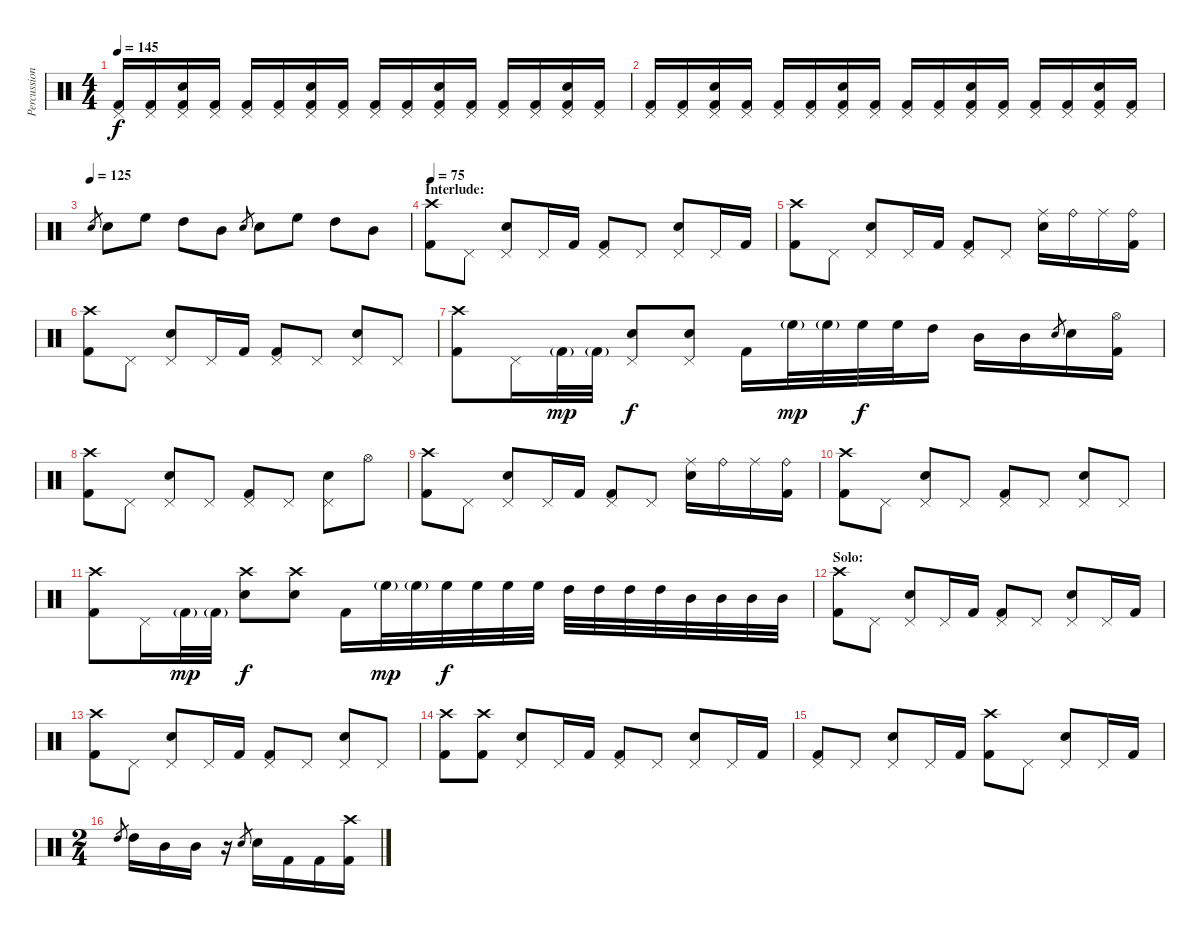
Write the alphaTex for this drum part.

\track ("Percussion" "Percussion") {instrument percussion}
\staff {score}
\articulation defaults
\ts (4 4)
\tempo 145
\clef neutral
\ks c
("Pedal Hi-Hat (hit)" "Kick (hit) 2").16{dy f} ("Pedal Hi-Hat (hit)" "Kick (hit) 2").16 ("Pedal Hi-Hat (hit)" "Snare (hit) 2" "Kick (hit) 2").16 ("Pedal Hi-Hat (hit)" "Kick (hit) 2").16 ("Pedal Hi-Hat (hit)" "Kick (hit) 2").16 ("Pedal Hi-Hat (hit)" "Kick (hit) 2").16 ("Pedal Hi-Hat (hit)" "Snare (hit) 2" "Kick (hit) 2").16 ("Pedal Hi-Hat (hit)" "Kick (hit) 2").16 ("Pedal Hi-Hat (hit)" "Kick (hit) 2").16 ("Pedal Hi-Hat (hit)" "Kick (hit) 2").16 ("Pedal Hi-Hat (hit)" "Snare (hit) 2" "Kick (hit) 2").16 ("Pedal Hi-Hat (hit)" "Kick (hit) 2").16 ("Pedal Hi-Hat (hit)" "Kick (hit) 2").16 ("Pedal Hi-Hat (hit)" "Kick (hit) 2").16 ("Pedal Hi-Hat (hit)" "Snare (hit) 2" "Kick (hit) 2").16 ("Pedal Hi-Hat (hit)" "Kick (hit) 2").16 |
("Pedal Hi-Hat (hit)" "Kick (hit) 2").16 ("Pedal Hi-Hat (hit)" "Kick (hit) 2").16 ("Pedal Hi-Hat (hit)" "Snare (hit) 2" "Kick (hit) 2").16 ("Pedal Hi-Hat (hit)" "Kick (hit) 2").16 ("Pedal Hi-Hat (hit)" "Kick (hit) 2").16 ("Pedal Hi-Hat (hit)" "Kick (hit) 2").16 ("Pedal Hi-Hat (hit)" "Snare (hit) 2" "Kick (hit) 2").16 ("Pedal Hi-Hat (hit)" "Kick (hit) 2").16 ("Pedal Hi-Hat (hit)" "Kick (hit) 2").16 ("Pedal Hi-Hat (hit)" "Kick (hit) 2").16 ("Pedal Hi-Hat (hit)" "Snare (hit) 2" "Kick (hit) 2").16 ("Pedal Hi-Hat (hit)" "Kick (hit) 2").16 ("Pedal Hi-Hat (hit)" "Kick (hit) 2").16 ("Pedal Hi-Hat (hit)" "Kick (hit) 2").16 ("Pedal Hi-Hat (hit)" "Snare (hit) 2" "Kick (hit) 2").16 ("Pedal Hi-Hat (hit)" "Kick (hit) 2").16 |
\tempo (125)
"Snare (hit) 2".8{gr} "Snare (hit) 2".8 "High Floor Tom (hit)".8 "High Tom (hit)".8 "Mid Tom (hit)".8 "Snare (hit) 2".8{gr} "Snare (hit) 2".8 "High Floor Tom (hit)".8 "High Tom (hit)".8 "Mid Tom (hit)".8 |
\section ("" "Interlude:")
\tempo 75
("Crash high (hit)" "Kick (hit) 2").8 "Pedal Hi-Hat (hit)".8 ("Pedal Hi-Hat (hit)" "Snare (hit) 2").8 "Pedal Hi-Hat (hit)".16 "Kick (hit) 2".16 ("Pedal Hi-Hat (hit)" "Kick (hit) 2").8 "Pedal Hi-Hat (hit)".8 ("Pedal Hi-Hat (hit)" "Snare (hit) 2").8 "Pedal Hi-Hat (hit)".16 "Kick (hit) 2".16 |
("Crash high (hit)" "Kick (hit) 2").8 "Pedal Hi-Hat (hit)".8 ("Pedal Hi-Hat (hit)" "Snare (hit) 2").8 "Pedal Hi-Hat (hit)".16 "Kick (hit) 2".16 ("Pedal Hi-Hat (hit)" "Kick (hit) 2").8 "Pedal Hi-Hat (hit)".8 ("Ride (middle)" "Snare (hit) 2").16 "Ride (bell)".16 "Ride (middle)".16 ("Ride (bell)" "Kick (hit) 2").16 |
("Crash high (hit)" "Kick (hit) 2").8 "Pedal Hi-Hat (hit)".8 ("Pedal Hi-Hat (hit)" "Snare (hit) 2").8 "Pedal Hi-Hat (hit)".16 "Kick (hit) 2".16 ("Pedal Hi-Hat (hit)" "Kick (hit) 2").8 "Pedal Hi-Hat (hit)".8 ("Pedal Hi-Hat (hit)" "Snare (hit) 2").8 "Pedal Hi-Hat (hit)".8 |
("Crash high (hit)" "Kick (hit) 2").8 "Pedal Hi-Hat (hit)".16 "Kick (hit) 2"{g}.32{dy mp} "Kick (hit) 2"{g}.32 ("Pedal Hi-Hat (hit)" "Snare (hit) 2").8{dy f} ("Pedal Hi-Hat (hit)" "Snare (hit) 2").8 "Kick (hit) 2".16 "High Floor Tom (hit)"{g}.32{dy mp} "High Floor Tom (hit)"{g}.32 "High Floor Tom (hit)".32{dy f} "High Floor Tom (hit)".32 "High Tom (hit)".16 "Mid Tom (hit)".16 "Mid Tom (hit)".16 "Snare (hit) 2".8{gr} "Snare (hit) 2".16 ("Hi-Hat (open)" "Kick (hit) 2").16 |
("Crash high (hit)" "Kick (hit) 2").8 "Pedal Hi-Hat (hit)".8 ("Pedal Hi-Hat (hit)" "Snare (hit) 2").8 "Pedal Hi-Hat (hit)".8 ("Pedal Hi-Hat (hit)" "Kick (hit) 2").8 "Pedal Hi-Hat (hit)".8 ("Pedal Hi-Hat (hit)" "Snare (hit) 2").8 "Hi-Hat (open)".8 |
("Crash high (hit)" "Kick (hit) 2").8 "Pedal Hi-Hat (hit)".8 ("Pedal Hi-Hat (hit)" "Snare (hit) 2").8 "Pedal Hi-Hat (hit)".16 "Kick (hit) 2".16 ("Pedal Hi-Hat (hit)" "Kick (hit) 2").8 "Pedal Hi-Hat (hit)".8 ("Ride (middle)" "Snare (hit) 2").16 "Ride (bell)".16 "Ride (middle)".16 ("Ride (bell)" "Kick (hit) 2").16 |
("Crash high (hit)" "Kick (hit) 2").8 "Pedal Hi-Hat (hit)".8 ("Pedal Hi-Hat (hit)" "Snare (hit) 2").8 "Pedal Hi-Hat (hit)".8 ("Pedal Hi-Hat (hit)" "Kick (hit) 2").8 "Pedal Hi-Hat (hit)".8 ("Pedal Hi-Hat (hit)" "Snare (hit) 2").8 "Pedal Hi-Hat (hit)".8 |
("Crash high (hit)" "Kick (hit) 2").8 "Pedal Hi-Hat (hit)".16 "Kick (hit) 2"{g}.32{dy mp} "Kick (hit) 2"{g}.32 ("Crash high (hit)" "Snare (hit) 2").8{dy f} ("Crash high (hit)" "Snare (hit) 2").8 "Kick (hit) 2".16 "High Floor Tom (hit)"{g}.32{dy mp} "High Floor Tom (hit)"{g}.32 "High Floor Tom (hit)".32{dy f} "High Floor Tom (hit)".32 "High Floor Tom (hit)".32 "High Floor Tom (hit)".32 "High Tom (hit)".32 "High Tom (hit)".32 "High Tom (hit)".32 "High Tom (hit)".32 "Mid Tom (hit)".32 "Mid Tom (hit)".32 "Mid Tom (hit)".32 "Mid Tom (hit)".32 |
\section ("" "Solo:")
("Crash high (hit)" "Kick (hit) 2").8 "Pedal Hi-Hat (hit)".8 ("Pedal Hi-Hat (hit)" "Snare (hit) 2").8 "Pedal Hi-Hat (hit)".16 "Kick (hit) 2".16 ("Pedal Hi-Hat (hit)" "Kick (hit) 2").8 "Pedal Hi-Hat (hit)".8 ("Pedal Hi-Hat (hit)" "Snare (hit) 2").8 "Pedal Hi-Hat (hit)".16 "Kick (hit) 2".16 |
("Crash high (hit)" "Kick (hit) 2").8 "Pedal Hi-Hat (hit)".8 ("Pedal Hi-Hat (hit)" "Snare (hit) 2").8 "Pedal Hi-Hat (hit)".16 "Kick (hit) 2".16 ("Pedal Hi-Hat (hit)" "Kick (hit) 2").8 "Pedal Hi-Hat (hit)".8 ("Pedal Hi-Hat (hit)" "Snare (hit) 2").8 "Pedal Hi-Hat (hit)".8 |
("Crash high (hit)" "Kick (hit) 2").8 ("Crash high (hit)" "Kick (hit) 2").8 ("Pedal Hi-Hat (hit)" "Snare (hit) 2").8 "Pedal Hi-Hat (hit)".16 "Kick (hit) 2".16 ("Pedal Hi-Hat (hit)" "Kick (hit) 2").8 "Pedal Hi-Hat (hit)".8 ("Pedal Hi-Hat (hit)" "Snare (hit) 2").8 "Pedal Hi-Hat (hit)".16 "Kick (hit) 2".16 |
("Pedal Hi-Hat (hit)" "Kick (hit) 2").8 "Pedal Hi-Hat (hit)".8 ("Pedal Hi-Hat (hit)" "Snare (hit) 2").8 "Pedal Hi-Hat (hit)".16 "Kick (hit) 2".16 ("Crash high (hit)" "Kick (hit) 2").8 "Pedal Hi-Hat (hit)".8 ("Pedal Hi-Hat (hit)" "Snare (hit) 2").8 "Pedal Hi-Hat (hit)".16 "Kick (hit) 2".16 |
\ts (2 4)
"High Tom (hit)".8{gr} "High Tom (hit)".16 "Mid Tom (hit)".16 "Mid Tom (hit)".16 r.16 "Snare (hit) 2".8{gr} "Snare (hit) 2".16 "Kick (hit) 2".16 "Kick (hit) 2".16 ("Crash high (hit)" "Kick (hit) 2").16
